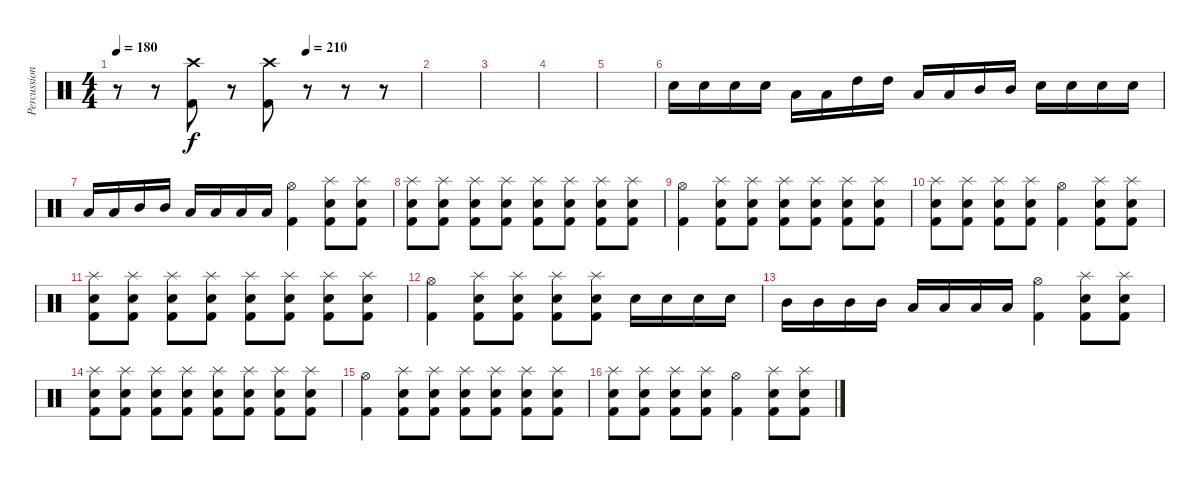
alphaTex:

\track ("Percussion" "Percussion") {instrument percussion}
\staff {score}
\articulation defaults
\ts (4 4)
\tempo 180
\tempo (210 0.625)
\clef neutral
\ks c
r.8{dy f} r.8 ("Crash high (hit)" "Kick (hit) 2").8 r.8 ("Crash high (hit)" "Kick (hit) 2").8{volume 0} r.8 r.8 r.8 |
|
|
|
|
"Snare (hit) 2".16{volume 16} "Snare (hit) 2".16 "Snare (hit) 2".16 "Snare (hit) 2".16 "Low Tom (hit)".16 "Low Tom (hit)".16 "High Tom (hit)".16 "High Tom (hit)".16 "Low Tom (hit)".16 "Low Tom (hit)".16 "Mid Tom (hit)".16 "Mid Tom (hit)".16 "Snare (hit) 2".16 "Snare (hit) 2".16 "Snare (hit) 2".16 "Snare (hit) 2".16 |
"Low Floor Tom (hit)".16 "Low Floor Tom (hit)".16 "Mid Tom (hit)".16 "Mid Tom (hit)".16 "Low Floor Tom (hit)".16 "Low Floor Tom (hit)".16 "Low Tom (hit)".16 "Low Tom (hit)".16 ("Hi-Hat (open)" "Kick (hit) 2").4 ("Splash (hit)" "Snare (hit) 2" "Kick (hit) 2").8 ("Splash (hit)" "Snare (hit) 2" "Kick (hit) 2").8 |
("Splash (hit)" "Snare (hit) 2" "Kick (hit) 2").8 ("Splash (hit)" "Snare (hit) 2" "Kick (hit) 2").8 ("Splash (hit)" "Snare (hit) 2" "Kick (hit) 2").8 ("Splash (hit)" "Snare (hit) 2" "Kick (hit) 2").8 ("Splash (hit)" "Snare (hit) 2" "Kick (hit) 2").8 ("Splash (hit)" "Snare (hit) 2" "Kick (hit) 2").8 ("Splash (hit)" "Snare (hit) 2" "Kick (hit) 2").8 ("Splash (hit)" "Snare (hit) 2" "Kick (hit) 2").8 |
("Hi-Hat (open)" "Kick (hit) 2").4 ("Splash (hit)" "Snare (hit) 2" "Kick (hit) 2").8 ("Splash (hit)" "Snare (hit) 2" "Kick (hit) 2").8 ("Splash (hit)" "Snare (hit) 2" "Kick (hit) 2").8 ("Splash (hit)" "Snare (hit) 2" "Kick (hit) 2").8 ("Splash (hit)" "Snare (hit) 2" "Kick (hit) 2").8 ("Splash (hit)" "Snare (hit) 2" "Kick (hit) 2").8 |
("Splash (hit)" "Snare (hit) 2" "Kick (hit) 2").8 ("Splash (hit)" "Snare (hit) 2" "Kick (hit) 2").8 ("Splash (hit)" "Snare (hit) 2" "Kick (hit) 2").8 ("Splash (hit)" "Snare (hit) 2" "Kick (hit) 2").8 ("Hi-Hat (open)" "Kick (hit) 2").4 ("Splash (hit)" "Snare (hit) 2" "Kick (hit) 2").8 ("Splash (hit)" "Snare (hit) 2" "Kick (hit) 2").8 |
("Splash (hit)" "Snare (hit) 2" "Kick (hit) 2").8 ("Splash (hit)" "Snare (hit) 2" "Kick (hit) 2").8 ("Splash (hit)" "Snare (hit) 2" "Kick (hit) 2").8 ("Splash (hit)" "Snare (hit) 2" "Kick (hit) 2").8 ("Splash (hit)" "Snare (hit) 2" "Kick (hit) 2").8 ("Splash (hit)" "Snare (hit) 2" "Kick (hit) 2").8 ("Splash (hit)" "Snare (hit) 2" "Kick (hit) 2").8 ("Splash (hit)" "Snare (hit) 2" "Kick (hit) 2").8 |
("Hi-Hat (open)" "Kick (hit) 2").4 ("Splash (hit)" "Snare (hit) 2" "Kick (hit) 2").8 ("Splash (hit)" "Snare (hit) 2" "Kick (hit) 2").8 ("Splash (hit)" "Snare (hit) 2" "Kick (hit) 2").8 ("Splash (hit)" "Snare (hit) 2" "Kick (hit) 2").8 "Snare (hit) 2".16 "Snare (hit) 2".16 "Snare (hit) 2".16 "Snare (hit) 2".16 |
"Mid Tom (hit)".16 "Mid Tom (hit)".16 "Mid Tom (hit)".16 "Mid Tom (hit)".16 "Low Tom (hit)".16 "Low Tom (hit)".16 "Low Tom (hit)".16 "Low Tom (hit)".16 ("Hi-Hat (open)" "Kick (hit) 2").4 ("Splash (hit)" "Snare (hit) 2" "Kick (hit) 2").8 ("Splash (hit)" "Snare (hit) 2" "Kick (hit) 2").8 |
("Splash (hit)" "Snare (hit) 2" "Kick (hit) 2").8 ("Splash (hit)" "Snare (hit) 2" "Kick (hit) 2").8 ("Splash (hit)" "Snare (hit) 2" "Kick (hit) 2").8 ("Splash (hit)" "Snare (hit) 2" "Kick (hit) 2").8 ("Splash (hit)" "Snare (hit) 2" "Kick (hit) 2").8 ("Splash (hit)" "Snare (hit) 2" "Kick (hit) 2").8 ("Splash (hit)" "Snare (hit) 2" "Kick (hit) 2").8 ("Splash (hit)" "Snare (hit) 2" "Kick (hit) 2").8 |
("Hi-Hat (open)" "Kick (hit) 2").4 ("Splash (hit)" "Snare (hit) 2" "Kick (hit) 2").8 ("Splash (hit)" "Snare (hit) 2" "Kick (hit) 2").8 ("Splash (hit)" "Snare (hit) 2" "Kick (hit) 2").8 ("Splash (hit)" "Snare (hit) 2" "Kick (hit) 2").8 ("Splash (hit)" "Snare (hit) 2" "Kick (hit) 2").8 ("Splash (hit)" "Snare (hit) 2" "Kick (hit) 2").8 |
("Splash (hit)" "Snare (hit) 2" "Kick (hit) 2").8 ("Splash (hit)" "Snare (hit) 2" "Kick (hit) 2").8 ("Splash (hit)" "Snare (hit) 2" "Kick (hit) 2").8 ("Splash (hit)" "Snare (hit) 2" "Kick (hit) 2").8 ("Hi-Hat (open)" "Kick (hit) 2").4 ("Splash (hit)" "Snare (hit) 2" "Kick (hit) 2").8 ("Splash (hit)" "Snare (hit) 2" "Kick (hit) 2").8
